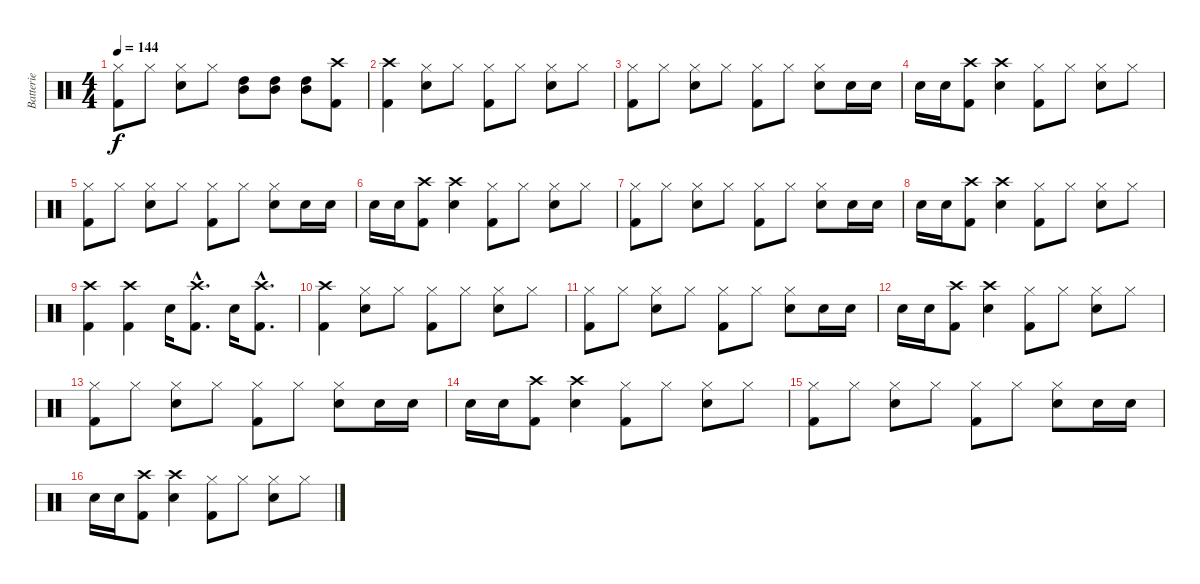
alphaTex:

\track ("Batterie" "Batterie") {instrument percussion}
\staff {score}
\articulation defaults
\ts (4 4)
\tempo 144
\clef neutral
\ks c
("Hi-Hat (closed)" "Kick (hit) 2").8{dy f} "Hi-Hat (closed)".8 ("Hi-Hat (closed)" "Snare (hit) 2").8 "Hi-Hat (closed)".8 ("High Tom (hit)" "Mid Tom (hit)").8 ("High Tom (hit)" "Mid Tom (hit)").8 ("High Tom (hit)" "Mid Tom (hit)").8 ("Crash high (hit)" "Kick (hit) 2").8 |
("Crash high (hit)" "Kick (hit) 2").4 ("Hi-Hat (closed)" "Snare (hit) 2").8 "Hi-Hat (closed)".8 ("Hi-Hat (closed)" "Kick (hit) 2").8 "Hi-Hat (closed)".8 ("Hi-Hat (closed)" "Snare (hit) 2").8 "Hi-Hat (closed)".8 |
("Hi-Hat (closed)" "Kick (hit) 2").8 "Hi-Hat (closed)".8 ("Hi-Hat (closed)" "Snare (hit) 2").8 "Hi-Hat (closed)".8 ("Hi-Hat (closed)" "Kick (hit) 2").8 "Hi-Hat (closed)".8 ("Hi-Hat (closed)" "Snare (hit) 2").8 "Snare (hit) 2".16 "Snare (hit) 2".16 |
"Snare (hit) 2".16 "Snare (hit) 2".16 ("Crash high (hit)" "Kick (hit) 2").8 ("Crash high (hit)" "Snare (hit) 2").4 ("Hi-Hat (closed)" "Kick (hit) 2").8 "Hi-Hat (closed)".8 ("Hi-Hat (closed)" "Snare (hit) 2").8 "Hi-Hat (closed)".8 |
("Hi-Hat (closed)" "Kick (hit) 2").8 "Hi-Hat (closed)".8 ("Hi-Hat (closed)" "Snare (hit) 2").8 "Hi-Hat (closed)".8 ("Hi-Hat (closed)" "Kick (hit) 2").8 "Hi-Hat (closed)".8 ("Hi-Hat (closed)" "Snare (hit) 2").8 "Snare (hit) 2".16 "Snare (hit) 2".16 |
"Snare (hit) 2".16 "Snare (hit) 2".16 ("Crash high (hit)" "Kick (hit) 2").8 ("Crash high (hit)" "Snare (hit) 2").4 ("Hi-Hat (closed)" "Kick (hit) 2").8 "Hi-Hat (closed)".8 ("Hi-Hat (closed)" "Snare (hit) 2").8 "Hi-Hat (closed)".8 |
("Hi-Hat (closed)" "Kick (hit) 2").8 "Hi-Hat (closed)".8 ("Hi-Hat (closed)" "Snare (hit) 2").8 "Hi-Hat (closed)".8 ("Hi-Hat (closed)" "Kick (hit) 2").8 "Hi-Hat (closed)".8 ("Hi-Hat (closed)" "Snare (hit) 2").8 "Snare (hit) 2".16 "Snare (hit) 2".16 |
"Snare (hit) 2".16 "Snare (hit) 2".16 ("Crash high (hit)" "Kick (hit) 2").8 ("Crash high (hit)" "Snare (hit) 2").4 ("Hi-Hat (closed)" "Kick (hit) 2").8 "Hi-Hat (closed)".8 ("Hi-Hat (closed)" "Snare (hit) 2").8 "Hi-Hat (closed)".8 |
("Crash high (hit)" "Kick (hit) 2").4 ("Crash high (hit)" "Kick (hit) 2").4 "Snare (hit) 2".16 ("Crash high (hit)"{hac} "Kick (hit) 2"{hac}).8{d} "Snare (hit) 2".16 ("Crash high (hit)"{hac} "Kick (hit) 2"{hac}).8{d} |
("Crash high (hit)" "Kick (hit) 2").4 ("Hi-Hat (closed)" "Snare (hit) 2").8 "Hi-Hat (closed)".8 ("Hi-Hat (closed)" "Kick (hit) 2").8 "Hi-Hat (closed)".8 ("Hi-Hat (closed)" "Snare (hit) 2").8 "Hi-Hat (closed)".8 |
("Hi-Hat (closed)" "Kick (hit) 2").8 "Hi-Hat (closed)".8 ("Hi-Hat (closed)" "Snare (hit) 2").8 "Hi-Hat (closed)".8 ("Hi-Hat (closed)" "Kick (hit) 2").8 "Hi-Hat (closed)".8 ("Hi-Hat (closed)" "Snare (hit) 2").8 "Snare (hit) 2".16 "Snare (hit) 2".16 |
"Snare (hit) 2".16 "Snare (hit) 2".16 ("Crash high (hit)" "Kick (hit) 2").8 ("Crash high (hit)" "Snare (hit) 2").4 ("Hi-Hat (closed)" "Kick (hit) 2").8 "Hi-Hat (closed)".8 ("Hi-Hat (closed)" "Snare (hit) 2").8 "Hi-Hat (closed)".8 |
("Hi-Hat (closed)" "Kick (hit) 2").8 "Hi-Hat (closed)".8 ("Hi-Hat (closed)" "Snare (hit) 2").8 "Hi-Hat (closed)".8 ("Hi-Hat (closed)" "Kick (hit) 2").8 "Hi-Hat (closed)".8 ("Hi-Hat (closed)" "Snare (hit) 2").8 "Snare (hit) 2".16 "Snare (hit) 2".16 |
"Snare (hit) 2".16 "Snare (hit) 2".16 ("Crash high (hit)" "Kick (hit) 2").8 ("Crash high (hit)" "Snare (hit) 2").4 ("Hi-Hat (closed)" "Kick (hit) 2").8 "Hi-Hat (closed)".8 ("Hi-Hat (closed)" "Snare (hit) 2").8 "Hi-Hat (closed)".8 |
("Hi-Hat (closed)" "Kick (hit) 2").8 "Hi-Hat (closed)".8 ("Hi-Hat (closed)" "Snare (hit) 2").8 "Hi-Hat (closed)".8 ("Hi-Hat (closed)" "Kick (hit) 2").8 "Hi-Hat (closed)".8 ("Hi-Hat (closed)" "Snare (hit) 2").8 "Snare (hit) 2".16 "Snare (hit) 2".16 |
"Snare (hit) 2".16 "Snare (hit) 2".16 ("Crash high (hit)" "Kick (hit) 2").8 ("Crash high (hit)" "Snare (hit) 2").4 ("Hi-Hat (closed)" "Kick (hit) 2").8 "Hi-Hat (closed)".8 ("Hi-Hat (closed)" "Snare (hit) 2").8 "Hi-Hat (closed)".8
